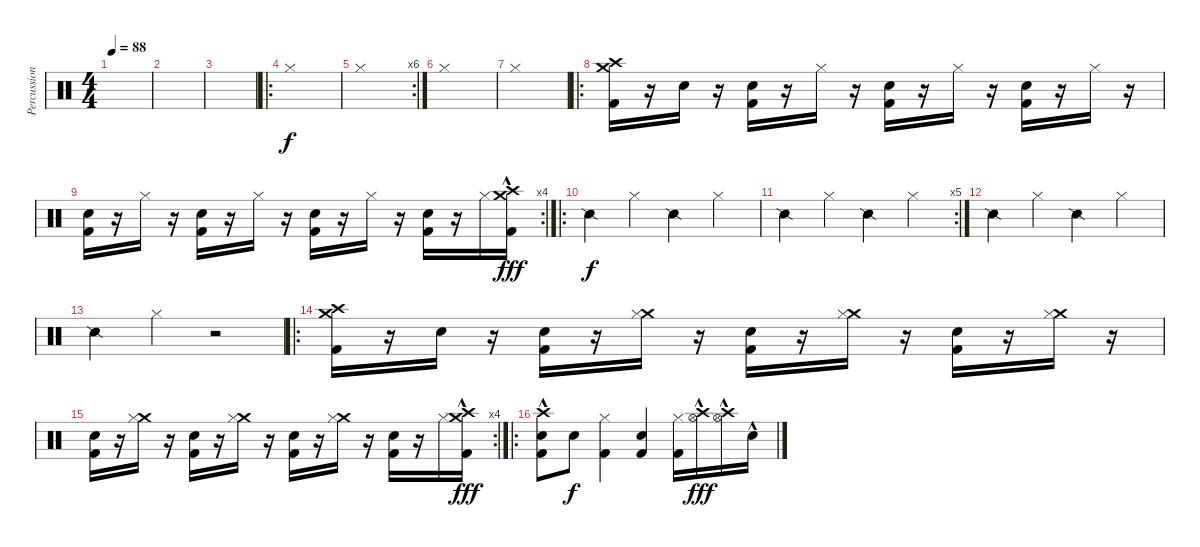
\track ("Percussion" "Percussion") {instrument percussion}
\staff {score}
\articulation defaults
\ts (4 4)
\tempo 88
\clef neutral
\ks c
|
|
|
\ro "Hi-Hat (closed)".1
|
\rc 6 "Hi-Hat (closed)".1
|
"Hi-Hat (closed)".1 |
"Hi-Hat (closed)".1 |
\ro
("Crash high (hit)" "Crash medium (hit)" "Kick (hit) 2").16 r.16 "Electric Snare (hit)".16 r.16 ("Electric Snare (hit)" "Kick (hit) 2").16 r.16 "Hi-Hat (closed)".16 r.16 ("Electric Snare (hit)" "Kick (hit) 2").16 r.16 "Hi-Hat (closed)".16 r.16 ("Electric Snare (hit)" "Kick (hit) 2").16 r.16 "Hi-Hat (closed)".16 r.16 |
\rc 4
("Electric Snare (hit)" "Kick (hit) 2").16 r.16 "Hi-Hat (closed)".16 r.16 ("Electric Snare (hit)" "Kick (hit) 2").16 r.16 "Hi-Hat (closed)".16 r.16 ("Electric Snare (hit)" "Kick (hit) 2").16 r.16 "Hi-Hat (closed)".16 r.16 ("Electric Snare (hit)" "Kick (hit) 2").16 r.16 "Hi-Hat (closed)".16 ("Crash high (hit)"{hac} "Crash medium (hit)"{hac} "Kick (hit) 2").16{dy fff} |
\ro "Snare (side stick) 2".4{dy f} "Hi-Hat (closed)".4 "Snare (side stick) 2".4 "Hi-Hat (closed)".4
|
\rc 5 "Snare (side stick) 2".4 "Hi-Hat (closed)".4 "Snare (side stick) 2".4 "Hi-Hat (closed)".4
|
"Snare (side stick) 2".4 "Hi-Hat (closed)".4 "Snare (side stick) 2".4 "Hi-Hat (closed)".4 |
"Snare (side stick) 2".4 "Hi-Hat (closed)".4 r.2 |
\ro
("Crash high (hit)" "Crash medium (hit)" "Kick (hit) 2").16 r.16 "Electric Snare (hit)".16 r.16 ("Electric Snare (hit)" "Kick (hit) 2").16 r.16 ("Crash medium (hit)" "Hi-Hat (closed)").16 r.16 ("Electric Snare (hit)" "Kick (hit) 2").16 r.16 ("Crash medium (hit)" "Hi-Hat (closed)").16 r.16 ("Electric Snare (hit)" "Kick (hit) 2").16 r.16 ("Crash medium (hit)" "Hi-Hat (closed)").16 r.16 |
\rc 4
("Electric Snare (hit)" "Kick (hit) 2").16 r.16 ("Crash medium (hit)" "Hi-Hat (closed)").16 r.16 ("Electric Snare (hit)" "Kick (hit) 2").16 r.16 ("Crash medium (hit)" "Hi-Hat (closed)").16 r.16 ("Electric Snare (hit)" "Kick (hit) 2").16 r.16 ("Crash medium (hit)" "Hi-Hat (closed)").16 r.16 ("Electric Snare (hit)" "Kick (hit) 2").16 r.16 "Hi-Hat (closed)".16 ("Crash high (hit)"{hac} "Crash medium (hit)"{hac} "Kick (hit) 2").16{dy fff} |
\ro
("Crash high (hit)"{hac} "Electric Snare (hit)"{hac} "Kick (hit) 2").8 "Electric Snare (hit)".8{dy f} ("Hi-Hat (closed)" "Kick (hit) 2").4 ("Electric Snare (hit)" "Kick (hit) 2").4 ("Hi-Hat (closed)" "Kick (hit) 2").16 ("Crash high (hit)"{hac} "Hi-Hat (open)"{hac}).16{dy fff} ("Crash high (hit)"{hac} "Hi-Hat (open)"{hac}).16 "Electric Snare (hit)"{hac}.16
